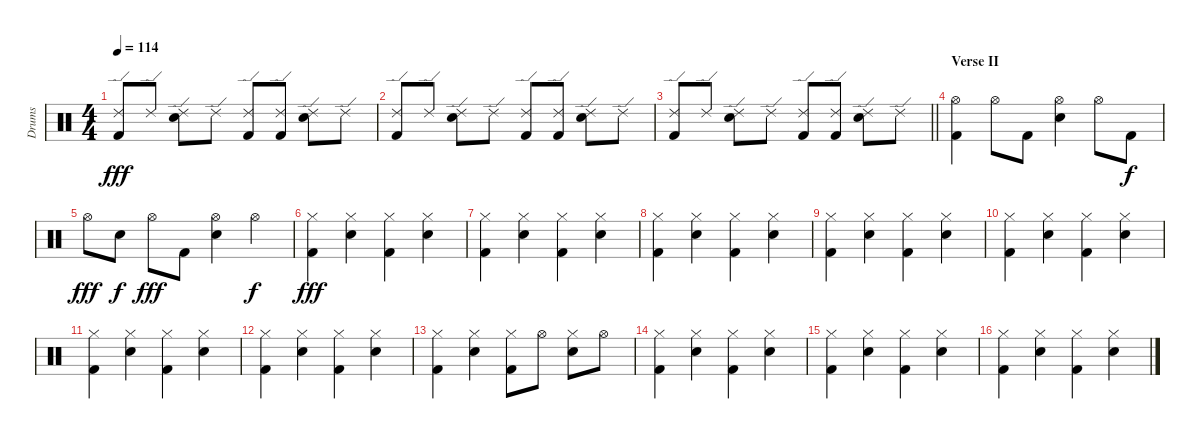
\track ("Drums" "Drums") {instrument percussion}
\staff {score}
\articulation defaults
\ts (4 4)
\tempo 114
\clef neutral
\ks c
("Ride (edge) 2" "Kick (hit) 2").8{dy fff} "Ride (edge) 2".8 ("Ride (edge) 2" "Snare (hit) 2").8 "Ride (edge) 2".8 ("Ride (edge) 2" "Kick (hit) 2").8 ("Ride (edge) 2" "Kick (hit) 2").8 ("Ride (edge) 2" "Snare (hit) 2").8 "Ride (edge) 2".8 |
("Ride (edge) 2" "Kick (hit) 2").8 "Ride (edge) 2".8 ("Ride (edge) 2" "Snare (hit) 2").8 "Ride (edge) 2".8 ("Ride (edge) 2" "Kick (hit) 2").8 ("Ride (edge) 2" "Kick (hit) 2").8 ("Ride (edge) 2" "Snare (hit) 2").8 "Ride (edge) 2".8 |
\barLineRight lightlight
("Ride (edge) 2" "Kick (hit) 2").8 "Ride (edge) 2".8 ("Ride (edge) 2" "Snare (hit) 2").8 "Ride (edge) 2".8 ("Ride (edge) 2" "Kick (hit) 2").8 ("Ride (edge) 2" "Kick (hit) 2").8 ("Ride (edge) 2" "Snare (hit) 2").8 "Ride (edge) 2".8 |
\section ("" "Verse II")
("Hi-Hat (open)" "Kick (hit) 2").4 "Hi-Hat (open)".8 "Kick (hit) 2".8 ("Hi-Hat (open)" "Snare (hit) 2").4 "Hi-Hat (open)".8 "Kick (hit) 2".8{dy f} |
"Hi-Hat (open)".8{dy fff} "Snare (hit) 2".8{dy f} "Hi-Hat (open)".8{dy fff} "Kick (hit) 2".8 ("Hi-Hat (open)" "Snare (hit) 2").4 "Hi-Hat (open)".4{dy f} |
("Hi-Hat (closed)" "Kick (hit) 2").4{dy fff} ("Hi-Hat (closed)" "Snare (hit) 2").4 ("Hi-Hat (closed)" "Kick (hit) 2").4 ("Hi-Hat (closed)" "Snare (hit) 2").4 |
("Hi-Hat (closed)" "Kick (hit) 2").4 ("Hi-Hat (closed)" "Snare (hit) 2").4 ("Hi-Hat (closed)" "Kick (hit) 2").4 ("Hi-Hat (closed)" "Snare (hit) 2").4 |
("Hi-Hat (closed)" "Kick (hit) 2").4 ("Hi-Hat (closed)" "Snare (hit) 2").4 ("Hi-Hat (closed)" "Kick (hit) 2").4 ("Hi-Hat (closed)" "Snare (hit) 2").4 |
("Hi-Hat (closed)" "Kick (hit) 2").4 ("Hi-Hat (closed)" "Snare (hit) 2").4 ("Hi-Hat (closed)" "Kick (hit) 2").4 ("Hi-Hat (closed)" "Snare (hit) 2").4 |
("Hi-Hat (closed)" "Kick (hit) 2").4 ("Hi-Hat (closed)" "Snare (hit) 2").4 ("Hi-Hat (closed)" "Kick (hit) 2").4 ("Hi-Hat (closed)" "Snare (hit) 2").4 |
("Hi-Hat (closed)" "Kick (hit) 2").4 ("Hi-Hat (closed)" "Snare (hit) 2").4 ("Hi-Hat (closed)" "Kick (hit) 2").4 ("Hi-Hat (closed)" "Snare (hit) 2").4 |
("Hi-Hat (closed)" "Kick (hit) 2").4 ("Hi-Hat (closed)" "Snare (hit) 2").4 ("Hi-Hat (closed)" "Kick (hit) 2").4 ("Hi-Hat (closed)" "Snare (hit) 2").4 |
("Hi-Hat (closed)" "Kick (hit) 2").4 ("Hi-Hat (closed)" "Snare (hit) 2").4 ("Hi-Hat (closed)" "Kick (hit) 2").8 "Hi-Hat (open)".8 ("Hi-Hat (closed)" "Snare (hit) 2").8 "Hi-Hat (open)".8 |
("Hi-Hat (closed)" "Kick (hit) 2").4 ("Hi-Hat (closed)" "Snare (hit) 2").4 ("Hi-Hat (closed)" "Kick (hit) 2").4 ("Hi-Hat (closed)" "Snare (hit) 2").4 |
("Hi-Hat (closed)" "Kick (hit) 2").4 ("Hi-Hat (closed)" "Snare (hit) 2").4 ("Hi-Hat (closed)" "Kick (hit) 2").4 ("Hi-Hat (closed)" "Snare (hit) 2").4 |
("Hi-Hat (closed)" "Kick (hit) 2").4 ("Hi-Hat (closed)" "Snare (hit) 2").4 ("Hi-Hat (closed)" "Kick (hit) 2").4 ("Hi-Hat (closed)" "Snare (hit) 2").4
